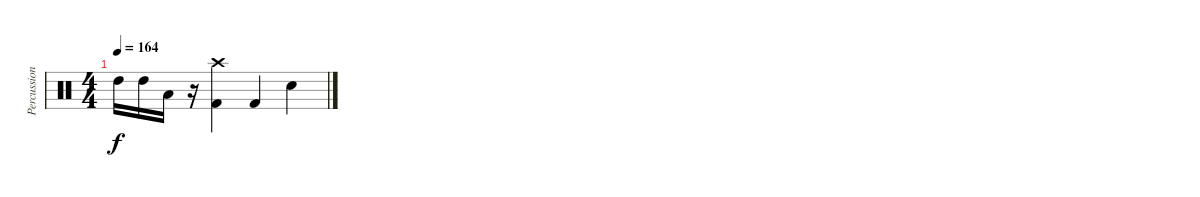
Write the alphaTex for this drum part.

\track ("Percussions" "Percussion") {instrument percussion}
\staff {score}
\articulation defaults
\ts (4 4)
\tempo 164
\clef neutral
\ks c "High Tom (hit)".16{dy f} "High Tom (hit)".16 "Low Tom (hit)".16
r.16 ("Crash high (hit)" "Kick (hit) 2").4 "Kick (hit) 2".4 "Electric Snare (hit)".4
